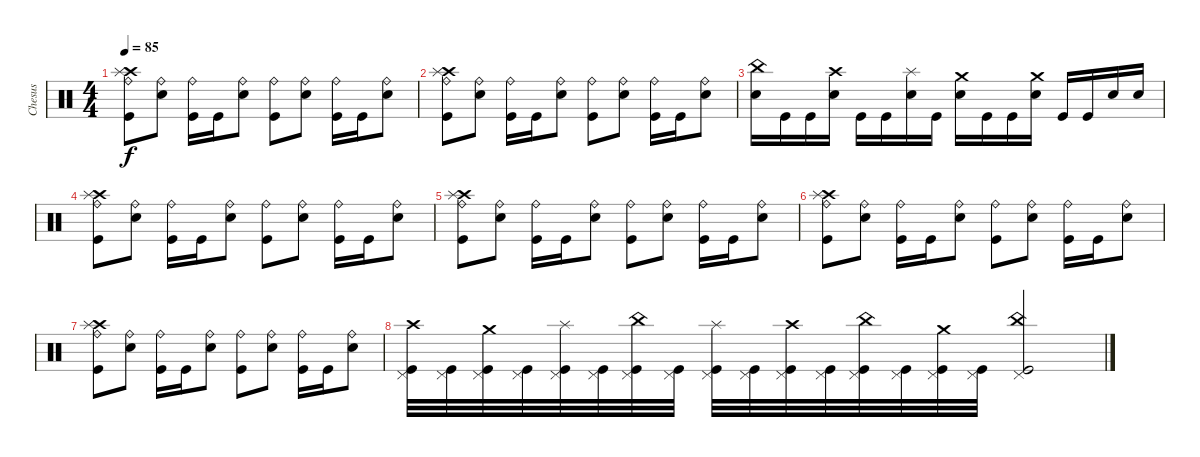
\track ("Chesus" "Chesus") {instrument percussion}
\staff {score}
\articulation defaults
\ts (4 4)
\tempo 85
\clef neutral
\ks c
("Crash high (hit)" "Splash (hit)" "Ride (bell)" "Kick (hit)").8{dy f} ("Ride (bell)" "Snare (hit) 2").8 ("Ride (bell)" "Kick (hit)").16 "Kick (hit)".16 ("Ride (bell)" "Snare (hit) 2").8 ("Ride (bell)" "Kick (hit)").8 ("Ride (bell)" "Snare (hit) 2").8 ("Ride (bell)" "Kick (hit)").16 "Kick (hit)".16 ("Ride (bell)" "Snare (hit) 2").8 |
("Crash high (hit)" "Splash (hit)" "Ride (bell)" "Kick (hit)").8 ("Ride (bell)" "Snare (hit) 2").8 ("Ride (bell)" "Kick (hit)").16 "Kick (hit)".16 ("Ride (bell)" "Snare (hit) 2").8 ("Ride (bell)" "Kick (hit)").8 ("Ride (bell)" "Snare (hit) 2").8 ("Ride (bell)" "Kick (hit)").16 "Kick (hit)".16 ("Ride (bell)" "Snare (hit) 2").8 |
("China (hit)" "Snare (hit) 2").16 "Kick (hit)".16 "Kick (hit)".16 ("Crash high (hit)" "Snare (hit) 2").16 "Kick (hit)".16 "Kick (hit)".16 ("Splash (hit)" "Snare (hit) 2").16 "Kick (hit)".16 ("Crash medium (hit)" "Snare (hit) 2").16 "Kick (hit)".16 "Kick (hit)".16 ("Crash medium (hit)" "Snare (hit) 2").16 "Kick (hit)".16 "Kick (hit)".16 "Snare (hit) 2".16 "Snare (hit) 2".16 |
("Crash high (hit)" "Splash (hit)" "Ride (bell)" "Kick (hit)").8 ("Ride (bell)" "Snare (hit) 2").8 ("Ride (bell)" "Kick (hit)").16 "Kick (hit)".16 ("Ride (bell)" "Snare (hit) 2").8 ("Ride (bell)" "Kick (hit)").8 ("Ride (bell)" "Snare (hit) 2").8 ("Ride (bell)" "Kick (hit)").16 "Kick (hit)".16 ("Ride (bell)" "Snare (hit) 2").8 |
("Crash high (hit)" "Splash (hit)" "Ride (bell)" "Kick (hit)").8 ("Ride (bell)" "Snare (hit) 2").8 ("Ride (bell)" "Kick (hit)").16 "Kick (hit)".16 ("Ride (bell)" "Snare (hit) 2").8 ("Ride (bell)" "Kick (hit)").8 ("Ride (bell)" "Snare (hit) 2").8 ("Ride (bell)" "Kick (hit)").16 "Kick (hit)".16 ("Ride (bell)" "Snare (hit) 2").8 |
("Crash high (hit)" "Splash (hit)" "Ride (bell)" "Kick (hit)").8 ("Ride (bell)" "Snare (hit) 2").8 ("Ride (bell)" "Kick (hit)").16 "Kick (hit)".16 ("Ride (bell)" "Snare (hit) 2").8 ("Ride (bell)" "Kick (hit)").8 ("Ride (bell)" "Snare (hit) 2").8 ("Ride (bell)" "Kick (hit)").16 "Kick (hit)".16 ("Ride (bell)" "Snare (hit) 2").8 |
("Crash high (hit)" "Splash (hit)" "Ride (bell)" "Kick (hit)").8 ("Ride (bell)" "Snare (hit) 2").8 ("Ride (bell)" "Kick (hit)").16 "Kick (hit)".16 ("Ride (bell)" "Snare (hit) 2").8 ("Ride (bell)" "Kick (hit)").8 ("Ride (bell)" "Snare (hit) 2").8 ("Ride (bell)" "Kick (hit)").16 "Kick (hit)".16 ("Ride (bell)" "Snare (hit) 2").8 |
("Crash high (hit)" "Pedal Hi-Hat (hit)" "Kick (hit)").32 ("Pedal Hi-Hat (hit)" "Kick (hit)").32 ("Crash medium (hit)" "Pedal Hi-Hat (hit)" "Kick (hit)").32 ("Pedal Hi-Hat (hit)" "Kick (hit)").32 ("Splash (hit)" "Pedal Hi-Hat (hit)" "Kick (hit)").32 ("Pedal Hi-Hat (hit)" "Kick (hit)").32 ("China (hit)" "Pedal Hi-Hat (hit)" "Kick (hit)").32 ("Pedal Hi-Hat (hit)" "Kick (hit)").32 ("Splash (hit)" "Pedal Hi-Hat (hit)" "Kick (hit)").32 ("Pedal Hi-Hat (hit)" "Kick (hit)").32 ("Crash high (hit)" "Pedal Hi-Hat (hit)" "Kick (hit)").32 ("Pedal Hi-Hat (hit)" "Kick (hit)").32 ("China (hit)" "Pedal Hi-Hat (hit)" "Kick (hit)").32 ("Pedal Hi-Hat (hit)" "Kick (hit)").32 ("Crash medium (hit)" "Pedal Hi-Hat (hit)" "Kick (hit)").32 ("Pedal Hi-Hat (hit)" "Kick (hit)").32 ("China (hit)" "Pedal Hi-Hat (hit)" "Kick (hit)").2
